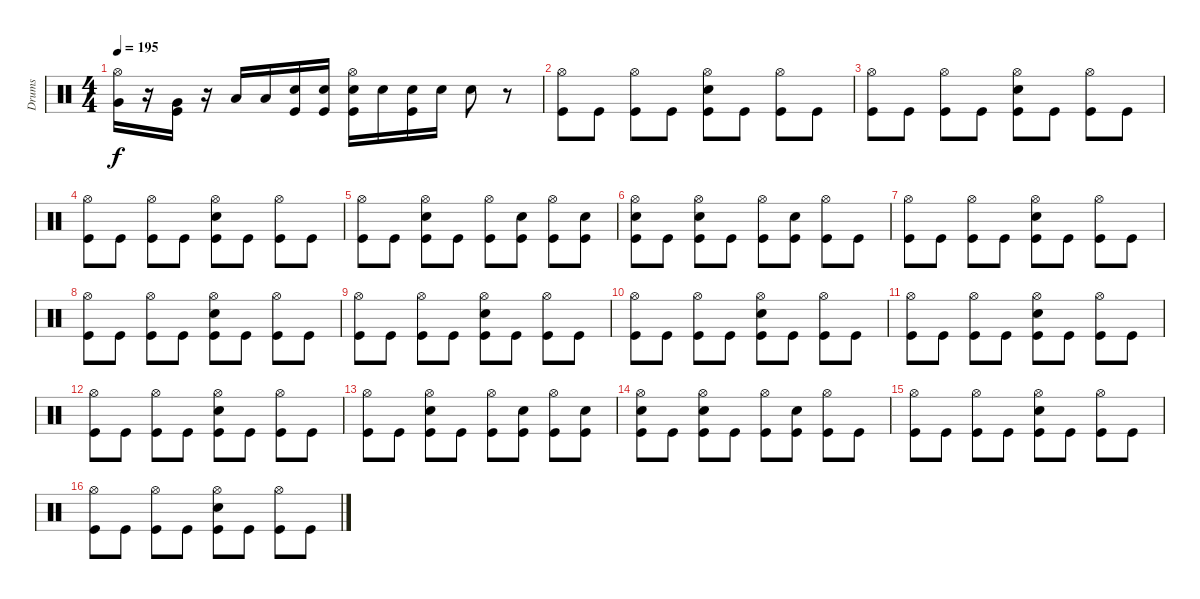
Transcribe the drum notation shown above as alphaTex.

\track ("Drums" "Drums") {instrument percussion}
\staff {score}
\articulation defaults
\ts (4 4)
\tempo 195
\clef neutral
\ks c
("Hi-Hat (open)" "Very Low Tom (hit)").16{dy f} r.16 ("Very Low Tom (hit)" "Kick (hit)").16 r.16 "Low Floor Tom (hit)".16 "Low Floor Tom (hit)".16 ("Electric Snare (hit)" "Kick (hit)").16 ("Electric Snare (hit)" "Kick (hit)").16 ("Hi-Hat (open)" "Electric Snare (hit)" "Kick (hit)").16 "Electric Snare (hit)".16 ("Electric Snare (hit)" "Kick (hit)").16 "Electric Snare (hit)".16 "Electric Snare (hit)".8 r.8 |
("Hi-Hat (open)" "Kick (hit)").8 "Kick (hit)".8 ("Hi-Hat (open)" "Kick (hit)").8 "Kick (hit)".8 ("Hi-Hat (open)" "Electric Snare (hit)" "Kick (hit)").8 "Kick (hit)".8 ("Hi-Hat (open)" "Kick (hit)").8 "Kick (hit)".8 |
("Hi-Hat (open)" "Kick (hit)").8 "Kick (hit)".8 ("Hi-Hat (open)" "Kick (hit)").8 "Kick (hit)".8 ("Hi-Hat (open)" "Electric Snare (hit)" "Kick (hit)").8 "Kick (hit)".8 ("Hi-Hat (open)" "Kick (hit)").8 "Kick (hit)".8 |
("Hi-Hat (open)" "Kick (hit)").8 "Kick (hit)".8 ("Hi-Hat (open)" "Kick (hit)").8 "Kick (hit)".8 ("Hi-Hat (open)" "Electric Snare (hit)" "Kick (hit)").8 "Kick (hit)".8 ("Hi-Hat (open)" "Kick (hit)").8 "Kick (hit)".8 |
("Hi-Hat (open)" "Kick (hit)").8 "Kick (hit)".8 ("Hi-Hat (open)" "Electric Snare (hit)" "Kick (hit)").8 "Kick (hit)".8 ("Hi-Hat (open)" "Kick (hit)").8 ("Electric Snare (hit)" "Kick (hit)").8 ("Hi-Hat (open)" "Kick (hit)").8 ("Electric Snare (hit)" "Kick (hit)").8 |
("Hi-Hat (open)" "Electric Snare (hit)" "Kick (hit)").8 "Kick (hit)".8 ("Hi-Hat (open)" "Electric Snare (hit)" "Kick (hit)").8 "Kick (hit)".8 ("Hi-Hat (open)" "Kick (hit)").8 ("Electric Snare (hit)" "Kick (hit)").8 ("Hi-Hat (open)" "Kick (hit)").8 "Kick (hit)".8 |
("Hi-Hat (open)" "Kick (hit)").8 "Kick (hit)".8 ("Hi-Hat (open)" "Kick (hit)").8 "Kick (hit)".8 ("Hi-Hat (open)" "Electric Snare (hit)" "Kick (hit)").8 "Kick (hit)".8 ("Hi-Hat (open)" "Kick (hit)").8 "Kick (hit)".8 |
("Hi-Hat (open)" "Kick (hit)").8 "Kick (hit)".8 ("Hi-Hat (open)" "Kick (hit)").8 "Kick (hit)".8 ("Hi-Hat (open)" "Electric Snare (hit)" "Kick (hit)").8 "Kick (hit)".8 ("Hi-Hat (open)" "Kick (hit)").8 "Kick (hit)".8 |
("Hi-Hat (open)" "Kick (hit)").8 "Kick (hit)".8 ("Hi-Hat (open)" "Kick (hit)").8 "Kick (hit)".8 ("Hi-Hat (open)" "Electric Snare (hit)" "Kick (hit)").8 "Kick (hit)".8 ("Hi-Hat (open)" "Kick (hit)").8 "Kick (hit)".8 |
("Hi-Hat (open)" "Kick (hit)").8 "Kick (hit)".8 ("Hi-Hat (open)" "Kick (hit)").8 "Kick (hit)".8 ("Hi-Hat (open)" "Electric Snare (hit)" "Kick (hit)").8 "Kick (hit)".8 ("Hi-Hat (open)" "Kick (hit)").8 "Kick (hit)".8 |
("Hi-Hat (open)" "Kick (hit)").8 "Kick (hit)".8 ("Hi-Hat (open)" "Kick (hit)").8 "Kick (hit)".8 ("Hi-Hat (open)" "Electric Snare (hit)" "Kick (hit)").8 "Kick (hit)".8 ("Hi-Hat (open)" "Kick (hit)").8 "Kick (hit)".8 |
("Hi-Hat (open)" "Kick (hit)").8 "Kick (hit)".8 ("Hi-Hat (open)" "Kick (hit)").8 "Kick (hit)".8 ("Hi-Hat (open)" "Electric Snare (hit)" "Kick (hit)").8 "Kick (hit)".8 ("Hi-Hat (open)" "Kick (hit)").8 "Kick (hit)".8 |
("Hi-Hat (open)" "Kick (hit)").8 "Kick (hit)".8 ("Hi-Hat (open)" "Electric Snare (hit)" "Kick (hit)").8 "Kick (hit)".8 ("Hi-Hat (open)" "Kick (hit)").8 ("Electric Snare (hit)" "Kick (hit)").8 ("Hi-Hat (open)" "Kick (hit)").8 ("Electric Snare (hit)" "Kick (hit)").8 |
("Hi-Hat (open)" "Electric Snare (hit)" "Kick (hit)").8 "Kick (hit)".8 ("Hi-Hat (open)" "Electric Snare (hit)" "Kick (hit)").8 "Kick (hit)".8 ("Hi-Hat (open)" "Kick (hit)").8 ("Electric Snare (hit)" "Kick (hit)").8 ("Hi-Hat (open)" "Kick (hit)").8 "Kick (hit)".8 |
("Hi-Hat (open)" "Kick (hit)").8 "Kick (hit)".8 ("Hi-Hat (open)" "Kick (hit)").8 "Kick (hit)".8 ("Hi-Hat (open)" "Electric Snare (hit)" "Kick (hit)").8 "Kick (hit)".8 ("Hi-Hat (open)" "Kick (hit)").8 "Kick (hit)".8 |
("Hi-Hat (open)" "Kick (hit)").8 "Kick (hit)".8 ("Hi-Hat (open)" "Kick (hit)").8 "Kick (hit)".8 ("Hi-Hat (open)" "Electric Snare (hit)" "Kick (hit)").8 "Kick (hit)".8 ("Hi-Hat (open)" "Kick (hit)").8 "Kick (hit)".8
